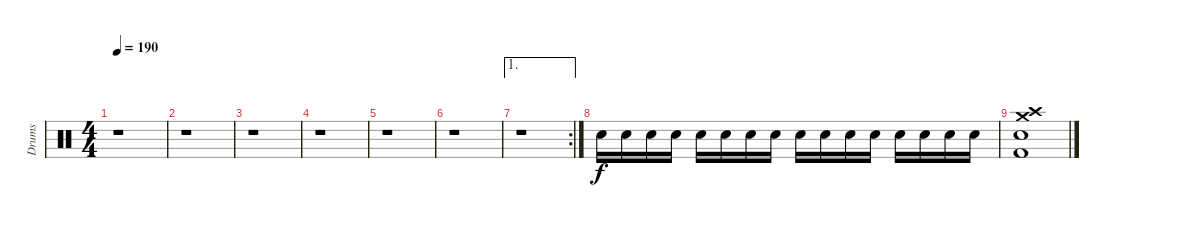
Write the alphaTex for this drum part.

\track ("Drums" "Drums") {instrument percussion}
\staff {score}
\articulation defaults
\ts (4 4)
\tempo 190
\clef neutral
\ks c
r.1{dy f} |
r.1 |
r.1 |
r.1 |
r.1 |
r.1 |
\ae 1
\rc 2
r.1 |
"Electric Snare (hit)".16 "Electric Snare (hit)".16 "Electric Snare (hit)".16 "Electric Snare (hit)".16 "Electric Snare (hit)".16 "Electric Snare (hit)".16 "Electric Snare (hit)".16 "Electric Snare (hit)".16 "Electric Snare (hit)".16 "Electric Snare (hit)".16 "Electric Snare (hit)".16 "Electric Snare (hit)".16 "Electric Snare (hit)".16 "Electric Snare (hit)".16 "Electric Snare (hit)".16 "Electric Snare (hit)".16 |
("Crash medium (hit)" "Electric Snare (hit)" "Crash high (hit)" "Kick (hit) 2").1
